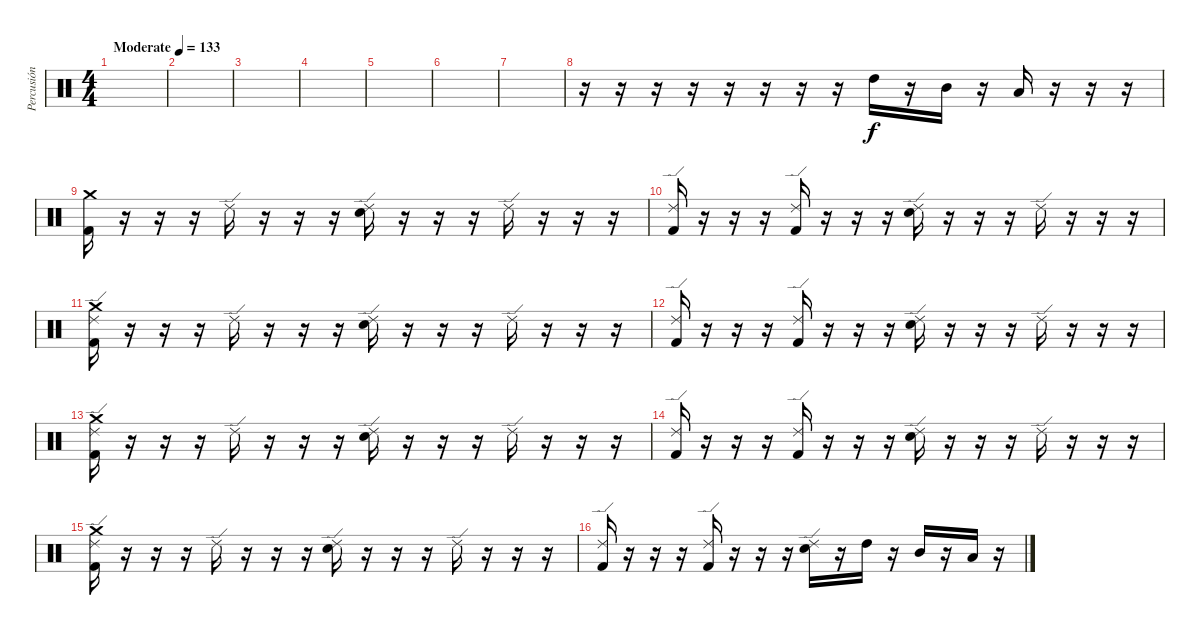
\track ("Percusión" "Percusión") {instrument percussion}
\staff {score}
\articulation defaults
\ts (4 4)
\tempo (133 "Moderate")
\clef neutral
\ks c
|
|
|
|
|
|
|
r.16 r.16 r.16 r.16 r.16 r.16 r.16 r.16 "High Tom (hit)".16 r.16 "Mid Tom (hit)".16 r.16 "Low Tom (hit)".16 r.16 r.16 r.16 |
("Crash medium (hit)" "Kick (hit) 2").16 r.16 r.16 r.16 "Ride (edge) 2".16 r.16 r.16 r.16 ("Ride (edge) 2" "Snare (hit) 2").16 r.16 r.16 r.16 "Ride (edge) 2".16 r.16 r.16 r.16 |
("Ride (edge) 2" "Kick (hit) 2").16 r.16 r.16 r.16 ("Ride (edge) 2" "Kick (hit) 2").16 r.16 r.16 r.16 ("Ride (edge) 2" "Snare (hit) 2").16 r.16 r.16 r.16 "Ride (edge) 2".16 r.16 r.16 r.16 |
("Crash medium (hit)" "Ride (edge) 2" "Kick (hit) 2").16 r.16 r.16 r.16 "Ride (edge) 2".16 r.16 r.16 r.16 ("Ride (edge) 2" "Snare (hit) 2").16 r.16 r.16 r.16 "Ride (edge) 2".16 r.16 r.16 r.16 |
("Ride (edge) 2" "Kick (hit) 2").16 r.16 r.16 r.16 ("Ride (edge) 2" "Kick (hit) 2").16 r.16 r.16 r.16 ("Ride (edge) 2" "Snare (hit) 2").16 r.16 r.16 r.16 "Ride (edge) 2".16 r.16 r.16 r.16 |
("Crash medium (hit)" "Ride (edge) 2" "Kick (hit) 2").16 r.16 r.16 r.16 "Ride (edge) 2".16 r.16 r.16 r.16 ("Ride (edge) 2" "Snare (hit) 2").16 r.16 r.16 r.16 "Ride (edge) 2".16 r.16 r.16 r.16 |
("Ride (edge) 2" "Kick (hit) 2").16 r.16 r.16 r.16 ("Ride (edge) 2" "Kick (hit) 2").16 r.16 r.16 r.16 ("Ride (edge) 2" "Snare (hit) 2").16 r.16 r.16 r.16 "Ride (edge) 2".16 r.16 r.16 r.16 |
("Crash medium (hit)" "Ride (edge) 2" "Kick (hit) 2").16 r.16 r.16 r.16 "Ride (edge) 2".16 r.16 r.16 r.16 ("Ride (edge) 2" "Snare (hit) 2").16 r.16 r.16 r.16 "Ride (edge) 2".16 r.16 r.16 r.16 |
("Ride (edge) 2" "Kick (hit) 2").16 r.16 r.16 r.16 ("Ride (edge) 2" "Kick (hit) 2").16 r.16 r.16 r.16 ("Ride (edge) 2" "Snare (hit) 2").16 r.16 "High Tom (hit)".16 r.16 "Mid Tom (hit)".16 r.16 "Low Tom (hit)".16 r.16
